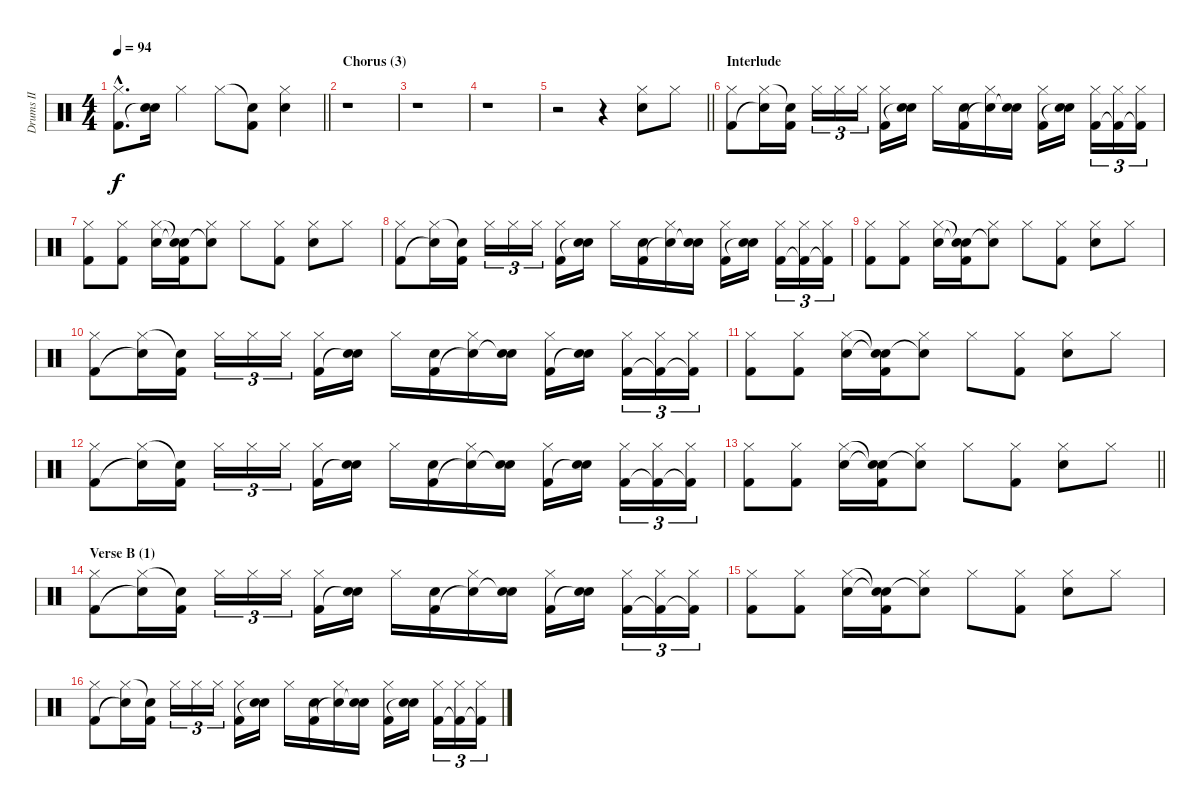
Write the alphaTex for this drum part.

\track ("Drums II" "Drums II") {instrument percussion}
\staff {score}
\articulation defaults
\ts (4 4)
\tempo 94
\clef neutral
\barLineRight lightlight
\ks aminor
("Hi-Hat (closed)"{hac} "Kick (hit) 2"{hac}).8{d dy f} ("Electric Snare (hit)" "Snare (hit)"{t}).16 "Hi-Hat (closed)".4 "Hi-Hat (closed)".8 ("Snare (hit)"{t} "Kick (hit) 2").8 ("Hi-Hat (closed)" "Electric Snare (hit)").4 |
\section ("" "Chorus (3)")
r.1 |
r.1 |
r.1 |
\barLineRight lightlight
r.2 r.4 ("Hi-Hat (closed)" "Electric Snare (hit)").8 "Hi-Hat (closed)".8 |
\section ("" "Interlude")
("Hi-Hat (closed)" "Kick (hit) 2").8 ("Hi-Hat (closed)" "Snare (hit)"{t}).16 ("Snare (hit)"{t} "Kick (hit) 2").16 "Hi-Hat (closed)".16{tu (3 2)} "Hi-Hat (closed)".16{tu (3 2)} "Hi-Hat (closed)".16{tu (3 2)} ("Hi-Hat (closed)" "Kick (hit) 2").16 ("Electric Snare (hit)" "Snare (hit)"{t}).16 "Hi-Hat (closed)".16 ("Electric Snare (hit)" "Kick (hit) 2").16 ("Hi-Hat (closed)" "Snare (hit)"{t}).16 ("Electric Snare (hit)" "Snare (hit)"{t}).16 ("Hi-Hat (closed)" "Kick (hit) 2").16 ("Electric Snare (hit)" "Snare (hit)"{t}).16 ("Hi-Hat (closed)" "Kick (hit) 2").16{tu (3 2)} ("Hi-Hat (closed)" "Kick (hit) 2"{t}).16{tu (3 2)} ("Hi-Hat (closed)" "Kick (hit) 2"{t}).16{tu (3 2)} |
("Hi-Hat (closed)" "Kick (hit) 2").8 ("Hi-Hat (closed)" "Kick (hit) 2").8 ("Hi-Hat (closed)" "Electric Snare (hit)").16 ("Snare (hit)"{t} "Snare (hit)"{t} "Kick (hit) 2").16 ("Hi-Hat (closed)" "Snare (hit)"{t}).8 "Hi-Hat (closed)".8 ("Hi-Hat (closed)" "Kick (hit) 2").8 ("Hi-Hat (closed)" "Electric Snare (hit)").8 "Hi-Hat (closed)".8 |
("Hi-Hat (closed)" "Kick (hit) 2").8 ("Hi-Hat (closed)" "Snare (hit)"{t}).16 ("Snare (hit)"{t} "Kick (hit) 2").16 "Hi-Hat (closed)".16{tu (3 2)} "Hi-Hat (closed)".16{tu (3 2)} "Hi-Hat (closed)".16{tu (3 2)} ("Hi-Hat (closed)" "Kick (hit) 2").16 ("Electric Snare (hit)" "Snare (hit)"{t}).16 "Hi-Hat (closed)".16 ("Electric Snare (hit)" "Kick (hit) 2").16 ("Hi-Hat (closed)" "Snare (hit)"{t}).16 ("Electric Snare (hit)" "Snare (hit)"{t}).16 ("Hi-Hat (closed)" "Kick (hit) 2").16 ("Electric Snare (hit)" "Snare (hit)"{t}).16 ("Hi-Hat (closed)" "Kick (hit) 2").16{tu (3 2)} ("Hi-Hat (closed)" "Kick (hit) 2"{t}).16{tu (3 2)} ("Hi-Hat (closed)" "Kick (hit) 2"{t}).16{tu (3 2)} |
("Hi-Hat (closed)" "Kick (hit) 2").8 ("Hi-Hat (closed)" "Kick (hit) 2").8 ("Hi-Hat (closed)" "Electric Snare (hit)").16 ("Snare (hit)"{t} "Snare (hit)"{t} "Kick (hit) 2").16 ("Hi-Hat (closed)" "Snare (hit)"{t}).8 "Hi-Hat (closed)".8 ("Hi-Hat (closed)" "Kick (hit) 2").8 ("Hi-Hat (closed)" "Electric Snare (hit)").8 "Hi-Hat (closed)".8 |
("Hi-Hat (closed)" "Kick (hit) 2").8 ("Hi-Hat (closed)" "Snare (hit)"{t}).16 ("Snare (hit)"{t} "Kick (hit) 2").16 "Hi-Hat (closed)".16{tu (3 2)} "Hi-Hat (closed)".16{tu (3 2)} "Hi-Hat (closed)".16{tu (3 2)} ("Hi-Hat (closed)" "Kick (hit) 2").16 ("Electric Snare (hit)" "Snare (hit)"{t}).16 "Hi-Hat (closed)".16 ("Electric Snare (hit)" "Kick (hit) 2").16 ("Hi-Hat (closed)" "Snare (hit)"{t}).16 ("Electric Snare (hit)" "Snare (hit)"{t}).16 ("Hi-Hat (closed)" "Kick (hit) 2").16 ("Electric Snare (hit)" "Snare (hit)"{t}).16 ("Hi-Hat (closed)" "Kick (hit) 2").16{tu (3 2)} ("Hi-Hat (closed)" "Kick (hit) 2"{t}).16{tu (3 2)} ("Hi-Hat (closed)" "Kick (hit) 2"{t}).16{tu (3 2)} |
("Hi-Hat (closed)" "Kick (hit) 2").8 ("Hi-Hat (closed)" "Kick (hit) 2").8 ("Hi-Hat (closed)" "Electric Snare (hit)").16 ("Snare (hit)"{t} "Snare (hit)"{t} "Kick (hit) 2").16 ("Hi-Hat (closed)" "Snare (hit)"{t}).8 "Hi-Hat (closed)".8 ("Hi-Hat (closed)" "Kick (hit) 2").8 ("Hi-Hat (closed)" "Electric Snare (hit)").8 "Hi-Hat (closed)".8 |
("Hi-Hat (closed)" "Kick (hit) 2").8 ("Hi-Hat (closed)" "Snare (hit)"{t}).16 ("Snare (hit)"{t} "Kick (hit) 2").16 "Hi-Hat (closed)".16{tu (3 2)} "Hi-Hat (closed)".16{tu (3 2)} "Hi-Hat (closed)".16{tu (3 2)} ("Hi-Hat (closed)" "Kick (hit) 2").16 ("Electric Snare (hit)" "Snare (hit)"{t}).16 "Hi-Hat (closed)".16 ("Electric Snare (hit)" "Kick (hit) 2").16 ("Hi-Hat (closed)" "Snare (hit)"{t}).16 ("Electric Snare (hit)" "Snare (hit)"{t}).16 ("Hi-Hat (closed)" "Kick (hit) 2").16 ("Electric Snare (hit)" "Snare (hit)"{t}).16 ("Hi-Hat (closed)" "Kick (hit) 2").16{tu (3 2)} ("Hi-Hat (closed)" "Kick (hit) 2"{t}).16{tu (3 2)} ("Hi-Hat (closed)" "Kick (hit) 2"{t}).16{tu (3 2)} |
\barLineRight lightlight
("Hi-Hat (closed)" "Kick (hit) 2").8 ("Hi-Hat (closed)" "Kick (hit) 2").8 ("Hi-Hat (closed)" "Electric Snare (hit)").16 ("Snare (hit)"{t} "Snare (hit)"{t} "Kick (hit) 2").16 ("Hi-Hat (closed)" "Snare (hit)"{t}).8 "Hi-Hat (closed)".8 ("Hi-Hat (closed)" "Kick (hit) 2").8 ("Hi-Hat (closed)" "Electric Snare (hit)").8 "Hi-Hat (closed)".8 |
\section ("" "Verse B (1)")
("Hi-Hat (closed)" "Kick (hit) 2").8 ("Hi-Hat (closed)" "Snare (hit)"{t}).16 ("Snare (hit)"{t} "Kick (hit) 2").16 "Hi-Hat (closed)".16{tu (3 2)} "Hi-Hat (closed)".16{tu (3 2)} "Hi-Hat (closed)".16{tu (3 2)} ("Hi-Hat (closed)" "Kick (hit) 2").16 ("Electric Snare (hit)" "Snare (hit)"{t}).16 "Hi-Hat (closed)".16 ("Electric Snare (hit)" "Kick (hit) 2").16 ("Hi-Hat (closed)" "Snare (hit)"{t}).16 ("Electric Snare (hit)" "Snare (hit)"{t}).16 ("Hi-Hat (closed)" "Kick (hit) 2").16 ("Electric Snare (hit)" "Snare (hit)"{t}).16 ("Hi-Hat (closed)" "Kick (hit) 2").16{tu (3 2)} ("Hi-Hat (closed)" "Kick (hit) 2"{t}).16{tu (3 2)} ("Hi-Hat (closed)" "Kick (hit) 2"{t}).16{tu (3 2)} |
("Hi-Hat (closed)" "Kick (hit) 2").8 ("Hi-Hat (closed)" "Kick (hit) 2").8 ("Hi-Hat (closed)" "Electric Snare (hit)").16 ("Snare (hit)"{t} "Snare (hit)"{t} "Kick (hit) 2").16 ("Hi-Hat (closed)" "Snare (hit)"{t}).8 "Hi-Hat (closed)".8 ("Hi-Hat (closed)" "Kick (hit) 2").8 ("Hi-Hat (closed)" "Electric Snare (hit)").8 "Hi-Hat (closed)".8 |
("Hi-Hat (closed)" "Kick (hit) 2").8 ("Hi-Hat (closed)" "Snare (hit)"{t}).16 ("Snare (hit)"{t} "Kick (hit) 2").16 "Hi-Hat (closed)".16{tu (3 2)} "Hi-Hat (closed)".16{tu (3 2)} "Hi-Hat (closed)".16{tu (3 2)} ("Hi-Hat (closed)" "Kick (hit) 2").16 ("Electric Snare (hit)" "Snare (hit)"{t}).16 "Hi-Hat (closed)".16 ("Electric Snare (hit)" "Kick (hit) 2").16 ("Hi-Hat (closed)" "Snare (hit)"{t}).16 ("Electric Snare (hit)" "Snare (hit)"{t}).16 ("Hi-Hat (closed)" "Kick (hit) 2").16 ("Electric Snare (hit)" "Snare (hit)"{t}).16 ("Hi-Hat (closed)" "Kick (hit) 2").16{tu (3 2)} ("Hi-Hat (closed)" "Kick (hit) 2"{t}).16{tu (3 2)} ("Hi-Hat (closed)" "Kick (hit) 2"{t}).16{tu (3 2)}
